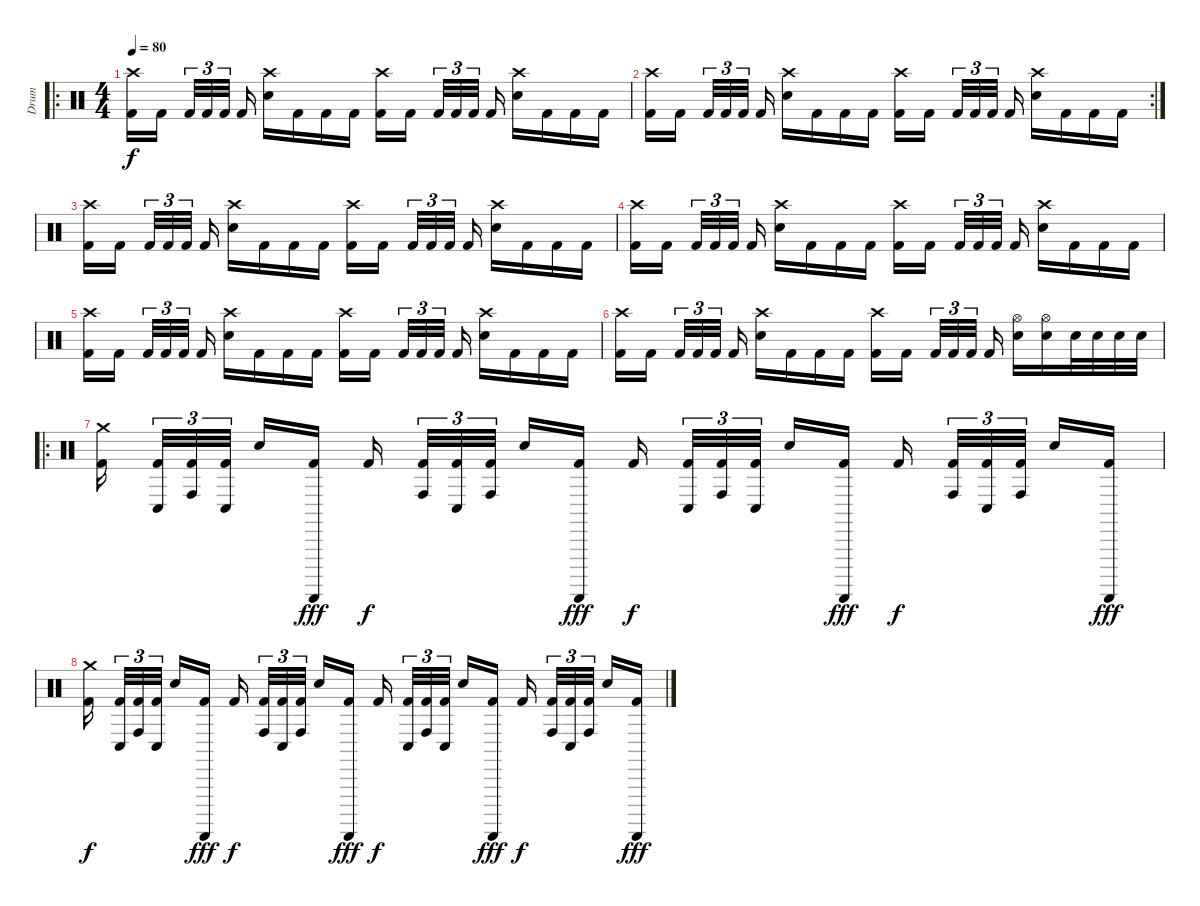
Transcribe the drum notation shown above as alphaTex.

\track ("Drum" "Drum") {instrument percussion}
\staff {score}
\articulation defaults
\ro
\ts (4 4)
\section ("" "")
\tempo 80
\clef neutral
\ks c
("Crash high (hit)" "Kick (hit) 2").16{dy f} "Kick (hit) 2".16 "Kick (hit) 2".32{tu (3 2)} "Kick (hit) 2".32{tu (3 2)} "Kick (hit) 2".32{tu (3 2)} "Kick (hit) 2".16 ("Crash high (hit)" "Electric Snare (hit)").16 "Kick (hit) 2".16 "Kick (hit) 2".16 "Kick (hit) 2".16 ("Crash high (hit)" "Kick (hit) 2").16 "Kick (hit) 2".16 "Kick (hit) 2".32{tu (3 2)} "Kick (hit) 2".32{tu (3 2)} "Kick (hit) 2".32{tu (3 2)} "Kick (hit) 2".16 ("Crash high (hit)" "Electric Snare (hit)").16 "Kick (hit) 2".16 "Kick (hit) 2".16 "Kick (hit) 2".16 |
\rc 2
("Crash high (hit)" "Kick (hit) 2").16 "Kick (hit) 2".16 "Kick (hit) 2".32{tu (3 2)} "Kick (hit) 2".32{tu (3 2)} "Kick (hit) 2".32{tu (3 2)} "Kick (hit) 2".16 ("Crash high (hit)" "Electric Snare (hit)").16 "Kick (hit) 2".16 "Kick (hit) 2".16 "Kick (hit) 2".16 ("Crash high (hit)" "Kick (hit) 2").16 "Kick (hit) 2".16 "Kick (hit) 2".32{tu (3 2)} "Kick (hit) 2".32{tu (3 2)} "Kick (hit) 2".32{tu (3 2)} "Kick (hit) 2".16 ("Crash high (hit)" "Electric Snare (hit)").16 "Kick (hit) 2".16 "Kick (hit) 2".16 "Kick (hit) 2".16 |
("Crash high (hit)" "Kick (hit) 2").16 "Kick (hit) 2".16 "Kick (hit) 2".32{tu (3 2)} "Kick (hit) 2".32{tu (3 2)} "Kick (hit) 2".32{tu (3 2)} "Kick (hit) 2".16 ("Crash high (hit)" "Electric Snare (hit)").16 "Kick (hit) 2".16 "Kick (hit) 2".16 "Kick (hit) 2".16 ("Crash high (hit)" "Kick (hit) 2").16 "Kick (hit) 2".16 "Kick (hit) 2".32{tu (3 2)} "Kick (hit) 2".32{tu (3 2)} "Kick (hit) 2".32{tu (3 2)} "Kick (hit) 2".16 ("Crash high (hit)" "Electric Snare (hit)").16 "Kick (hit) 2".16 "Kick (hit) 2".16 "Kick (hit) 2".16 |
("Crash high (hit)" "Kick (hit) 2").16 "Kick (hit) 2".16 "Kick (hit) 2".32{tu (3 2)} "Kick (hit) 2".32{tu (3 2)} "Kick (hit) 2".32{tu (3 2)} "Kick (hit) 2".16 ("Crash high (hit)" "Electric Snare (hit)").16 "Kick (hit) 2".16 "Kick (hit) 2".16 "Kick (hit) 2".16 ("Crash high (hit)" "Kick (hit) 2").16 "Kick (hit) 2".16 "Kick (hit) 2".32{tu (3 2)} "Kick (hit) 2".32{tu (3 2)} "Kick (hit) 2".32{tu (3 2)} "Kick (hit) 2".16 ("Crash high (hit)" "Electric Snare (hit)").16 "Kick (hit) 2".16 "Kick (hit) 2".16 "Kick (hit) 2".16 |
("Crash high (hit)" "Kick (hit) 2").16 "Kick (hit) 2".16 "Kick (hit) 2".32{tu (3 2)} "Kick (hit) 2".32{tu (3 2)} "Kick (hit) 2".32{tu (3 2)} "Kick (hit) 2".16 ("Crash high (hit)" "Electric Snare (hit)").16 "Kick (hit) 2".16 "Kick (hit) 2".16 "Kick (hit) 2".16 ("Crash high (hit)" "Kick (hit) 2").16 "Kick (hit) 2".16 "Kick (hit) 2".32{tu (3 2)} "Kick (hit) 2".32{tu (3 2)} "Kick (hit) 2".32{tu (3 2)} "Kick (hit) 2".16 ("Crash high (hit)" "Electric Snare (hit)").16 "Kick (hit) 2".16 "Kick (hit) 2".16 "Kick (hit) 2".16 |
("Crash high (hit)" "Kick (hit) 2").16 "Kick (hit) 2".16 "Kick (hit) 2".32{tu (3 2)} "Kick (hit) 2".32{tu (3 2)} "Kick (hit) 2".32{tu (3 2)} "Kick (hit) 2".16 ("Crash high (hit)" "Electric Snare (hit)").16 "Kick (hit) 2".16 "Kick (hit) 2".16 "Kick (hit) 2".16 ("Crash high (hit)" "Kick (hit) 2").16 "Kick (hit) 2".16 "Kick (hit) 2".32{tu (3 2)} "Kick (hit) 2".32{tu (3 2)} "Kick (hit) 2".32{tu (3 2)} "Kick (hit) 2".16 ("Hi-Hat (open)" "Electric Snare (hit)").16 ("Hi-Hat (open)" "Electric Snare (hit)").16 "Electric Snare (hit)".32 "Electric Snare (hit)".32 "Electric Snare (hit)".32 "Electric Snare (hit)".32 |
\ro
\section ("" "")
("Crash medium (hit)" "Kick (hit) 2").16 ("Conga low (hit)" "Kick (hit) 2").32{tu (3 2)} ("Conga high (hit)" "Kick (hit) 2").32{tu (3 2)} ("Conga low (hit)" "Kick (hit) 2").32{tu (3 2)} "Electric Snare (hit)".16 ("Guiro (scrap-return)" "Kick (hit) 2").16{dy fff} "Kick (hit) 2".16{dy f} ("Conga high (hit)" "Kick (hit) 2").32{tu (3 2)} ("Conga low (hit)" "Kick (hit) 2").32{tu (3 2)} ("Conga high (hit)" "Kick (hit) 2").32{tu (3 2)} "Electric Snare (hit)".16 ("Guiro (scrap-return)" "Kick (hit) 2").16{dy fff} "Kick (hit) 2".16{dy f} ("Conga low (hit)" "Kick (hit) 2").32{tu (3 2)} ("Conga high (hit)" "Kick (hit) 2").32{tu (3 2)} ("Conga low (hit)" "Kick (hit) 2").32{tu (3 2)} "Electric Snare (hit)".16 ("Guiro (scrap-return)" "Kick (hit) 2").16{dy fff} "Kick (hit) 2".16{dy f} ("Conga high (hit)" "Kick (hit) 2").32{tu (3 2)} ("Conga low (hit)" "Kick (hit) 2").32{tu (3 2)} ("Conga high (hit)" "Kick (hit) 2").32{tu (3 2)} "Electric Snare (hit)".16 ("Guiro (scrap-return)" "Kick (hit) 2").16{dy fff} |
("Crash medium (hit)" "Kick (hit) 2").16{dy f} ("Conga low (hit)" "Kick (hit) 2").32{tu (3 2)} ("Conga high (hit)" "Kick (hit) 2").32{tu (3 2)} ("Conga low (hit)" "Kick (hit) 2").32{tu (3 2)} "Electric Snare (hit)".16 ("Guiro (scrap-return)" "Kick (hit) 2").16{dy fff} "Kick (hit) 2".16{dy f} ("Conga high (hit)" "Kick (hit) 2").32{tu (3 2)} ("Conga low (hit)" "Kick (hit) 2").32{tu (3 2)} ("Conga high (hit)" "Kick (hit) 2").32{tu (3 2)} "Electric Snare (hit)".16 ("Guiro (scrap-return)" "Kick (hit) 2").16{dy fff} "Kick (hit) 2".16{dy f} ("Conga low (hit)" "Kick (hit) 2").32{tu (3 2)} ("Conga high (hit)" "Kick (hit) 2").32{tu (3 2)} ("Conga low (hit)" "Kick (hit) 2").32{tu (3 2)} "Electric Snare (hit)".16 ("Guiro (scrap-return)" "Kick (hit) 2").16{dy fff} "Kick (hit) 2".16{dy f} ("Conga high (hit)" "Kick (hit) 2").32{tu (3 2)} ("Conga low (hit)" "Kick (hit) 2").32{tu (3 2)} ("Conga high (hit)" "Kick (hit) 2").32{tu (3 2)} "Electric Snare (hit)".16 ("Guiro (scrap-return)" "Kick (hit) 2").16{dy fff}
